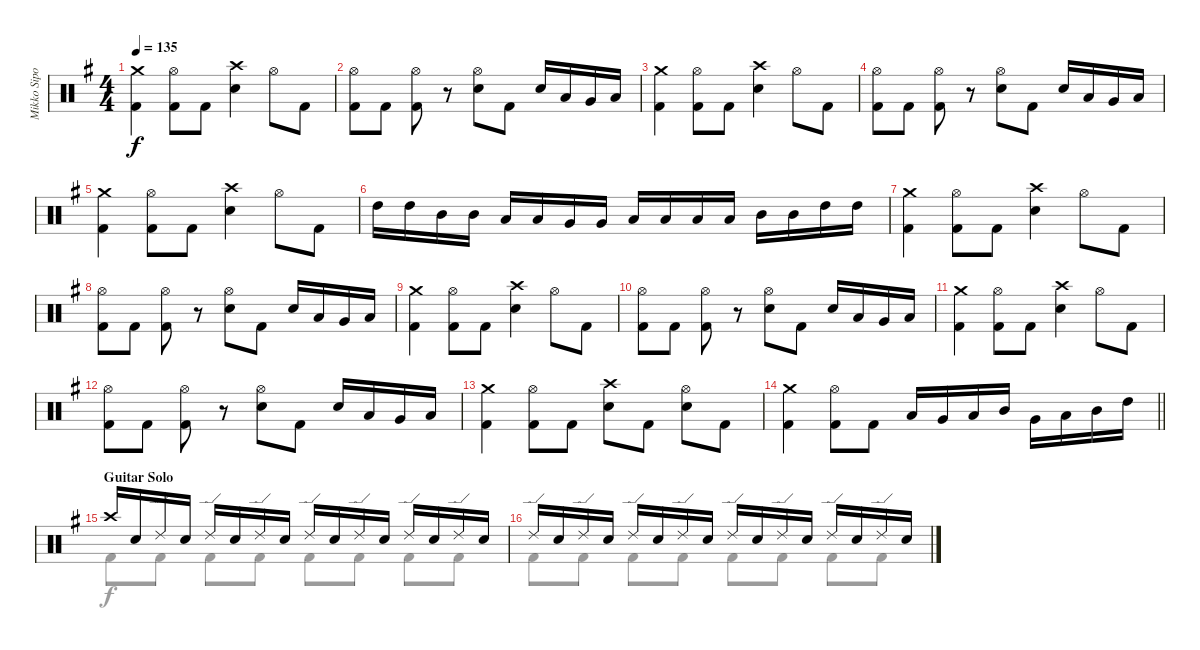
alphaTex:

\track ("Mikko Sipola (drums)" "Mikko Sipo") {instrument percussion}
\staff {score}
\articulation defaults
\voice
\ts (4 4)
\tempo 135
\clef neutral
\ks eminor
("Crash medium (hit)" "Kick (hit) 2").4{dy f} ("Hi-Hat (open)" "Kick (hit) 2").8 "Kick (hit) 2".8 ("Electric Snare (hit)" "Crash high (hit)").4 "Hi-Hat (open)".8 "Kick (hit) 2".8 |
("Hi-Hat (open)" "Kick (hit) 2").8 "Kick (hit) 2".8 ("Hi-Hat (open)" "Kick (hit) 2").8 r.8 ("Electric Snare (hit)" "Hi-Hat (open)").8 "Kick (hit) 2".8 "Electric Snare (hit)".16 "Low Tom (hit)".16 "Very Low Tom (hit)".16 "Low Floor Tom (hit)".16 |
("Crash medium (hit)" "Kick (hit) 2").4 ("Hi-Hat (open)" "Kick (hit) 2").8 "Kick (hit) 2".8 ("Electric Snare (hit)" "Crash high (hit)").4 "Hi-Hat (open)".8 "Kick (hit) 2".8 |
("Hi-Hat (open)" "Kick (hit) 2").8 "Kick (hit) 2".8 ("Hi-Hat (open)" "Kick (hit) 2").8 r.8 ("Electric Snare (hit)" "Hi-Hat (open)").8 "Kick (hit) 2".8 "Electric Snare (hit)".16 "Low Tom (hit)".16 "Very Low Tom (hit)".16 "Low Floor Tom (hit)".16 |
("Crash medium (hit)" "Kick (hit) 2").4 ("Hi-Hat (open)" "Kick (hit) 2").8 "Kick (hit) 2".8 ("Electric Snare (hit)" "Crash high (hit)").4 "Hi-Hat (open)".8 "Kick (hit) 2".8 |
"High Tom (hit)".16 "High Tom (hit)".16 "Mid Tom (hit)".16 "Mid Tom (hit)".16 "Low Tom (hit)".16 "Low Tom (hit)".16 "Very Low Tom (hit)".16 "Very Low Tom (hit)".16 "Low Floor Tom (hit)".16 "Low Floor Tom (hit)".16 "Low Tom (hit)".16 "Low Tom (hit)".16 "Mid Tom (hit)".16 "Mid Tom (hit)".16 "High Tom (hit)".16 "High Tom (hit)".16 |
("Crash medium (hit)" "Kick (hit) 2").4 ("Hi-Hat (open)" "Kick (hit) 2").8 "Kick (hit) 2".8 ("Electric Snare (hit)" "Crash high (hit)").4 "Hi-Hat (open)".8 "Kick (hit) 2".8 |
("Hi-Hat (open)" "Kick (hit) 2").8 "Kick (hit) 2".8 ("Hi-Hat (open)" "Kick (hit) 2").8 r.8 ("Electric Snare (hit)" "Hi-Hat (open)").8 "Kick (hit) 2".8 "Electric Snare (hit)".16 "Low Tom (hit)".16 "Very Low Tom (hit)".16 "Low Floor Tom (hit)".16 |
("Crash medium (hit)" "Kick (hit) 2").4 ("Hi-Hat (open)" "Kick (hit) 2").8 "Kick (hit) 2".8 ("Electric Snare (hit)" "Crash high (hit)").4 "Hi-Hat (open)".8 "Kick (hit) 2".8 |
("Hi-Hat (open)" "Kick (hit) 2").8 "Kick (hit) 2".8 ("Hi-Hat (open)" "Kick (hit) 2").8 r.8 ("Electric Snare (hit)" "Hi-Hat (open)").8 "Kick (hit) 2".8 "Electric Snare (hit)".16 "Low Tom (hit)".16 "Very Low Tom (hit)".16 "Low Floor Tom (hit)".16 |
("Crash medium (hit)" "Kick (hit) 2").4 ("Hi-Hat (open)" "Kick (hit) 2").8 "Kick (hit) 2".8 ("Electric Snare (hit)" "Crash high (hit)").4 "Hi-Hat (open)".8 "Kick (hit) 2".8 |
("Hi-Hat (open)" "Kick (hit) 2").8 "Kick (hit) 2".8 ("Hi-Hat (open)" "Kick (hit) 2").8 r.8 ("Electric Snare (hit)" "Hi-Hat (open)").8 "Kick (hit) 2".8 "Electric Snare (hit)".16 "Low Tom (hit)".16 "Very Low Tom (hit)".16 "Low Floor Tom (hit)".16 |
("Crash medium (hit)" "Kick (hit) 2").4 ("Hi-Hat (open)" "Kick (hit) 2").8 "Kick (hit) 2".8 ("Electric Snare (hit)" "Crash high (hit)").8 "Kick (hit) 2".8 ("Electric Snare (hit)" "Hi-Hat (open)").8 "Kick (hit) 2".8 |
\barLineRight lightlight
("Crash medium (hit)" "Kick (hit) 2").4 ("Hi-Hat (open)" "Kick (hit) 2").8 "Kick (hit) 2".8 "Low Floor Tom (hit)".16 "Very Low Tom (hit)".16 "Low Tom (hit)".16 "Mid Tom (hit)".16 "Very Low Tom (hit)".16 "Low Tom (hit)".16 "Mid Tom (hit)".16 "High Tom (hit)".16 |
\section ("" "Guitar Solo")
"Crash high (hit)".16 "Electric Snare (hit)".16 "Ride (edge) 2".16 "Electric Snare (hit)".16 "Ride (edge) 2".16 "Electric Snare (hit)".16 "Ride (edge) 2".16 "Electric Snare (hit)".16 "Ride (edge) 2".16 "Electric Snare (hit)".16 "Ride (edge) 2".16 "Electric Snare (hit)".16 "Ride (edge) 2".16 "Electric Snare (hit)".16 "Ride (edge) 2".16 "Electric Snare (hit)".16 |
"Ride (edge) 2".16 "Electric Snare (hit)".16 "Ride (edge) 2".16 "Electric Snare (hit)".16 "Ride (edge) 2".16 "Electric Snare (hit)".16 "Ride (edge) 2".16 "Electric Snare (hit)".16 "Ride (edge) 2".16 "Electric Snare (hit)".16 "Ride (edge) 2".16 "Electric Snare (hit)".16 "Ride (edge) 2".16 "Electric Snare (hit)".16 "Ride (edge) 2".16 "Electric Snare (hit)".16
\voice
\clef neutral
\ottava regular
\simile none
\ks eminor
|
|
|
|
|
|
|
|
|
|
|
|
|
\barLineRight lightlight
|
"Kick (hit) 2".8 "Kick (hit) 2".8 "Kick (hit) 2".8 "Kick (hit) 2".8 "Kick (hit) 2".8 "Kick (hit) 2".8 "Kick (hit) 2".8 "Kick (hit) 2".8 |
"Kick (hit) 2".8 "Kick (hit) 2".8 "Kick (hit) 2".8 "Kick (hit) 2".8 "Kick (hit) 2".8 "Kick (hit) 2".8 "Kick (hit) 2".8 "Kick (hit) 2".8
